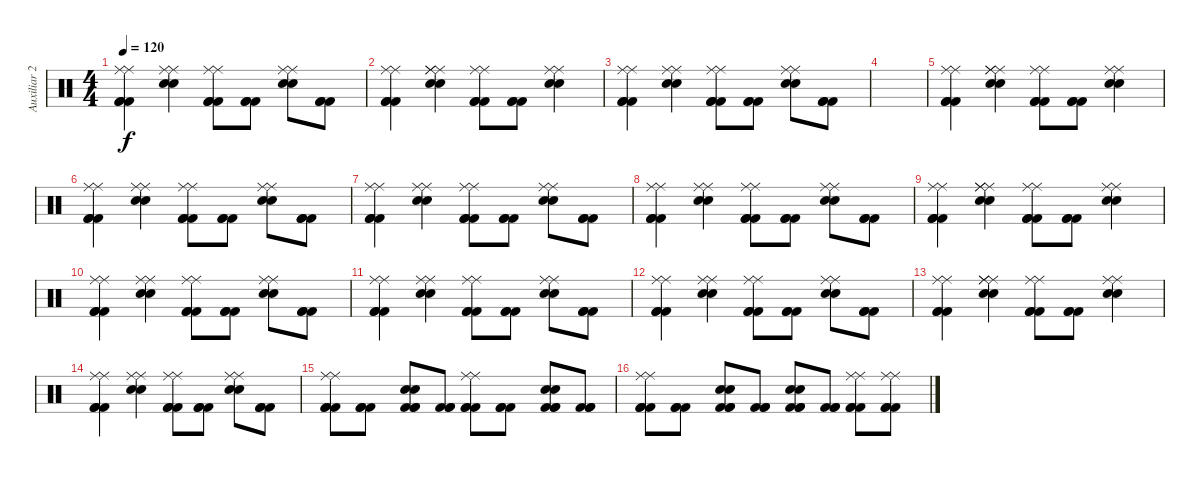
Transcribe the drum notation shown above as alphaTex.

\track ("Auxiliar 2" "Auxiliar 2") {instrument percussion}
\staff {score}
\articulation defaults
\ts (4 4)
\tempo 120
\clef neutral
\ks c
("Kick (hit) 2" "Kick (hit) 2" "Kick (hit) 2" "Ride (middle)" "Ride (middle)").4{dy f} ("Snare (hit) 2" "Snare (hit) 2" "Ride (middle)" "Ride (middle)").4 ("Kick (hit) 2" "Kick (hit) 2" "Kick (hit) 2" "Ride (middle)" "Ride (middle)").8 ("Kick (hit) 2" "Kick (hit) 2" "Kick (hit) 2").8 ("Snare (hit) 2" "Snare (hit) 2" "Ride (middle)" "Ride (middle)").8 ("Kick (hit) 2" "Kick (hit) 2" "Kick (hit) 2").8 |
("Kick (hit) 2" "Kick (hit) 2" "Kick (hit) 2" "Ride (middle)" "Ride (middle)").4 ("Snare (hit) 2" "Snare (hit) 2" "Ride (middle)" "Ride (middle)" "Ride (middle)").4 ("Kick (hit) 2" "Kick (hit) 2" "Kick (hit) 2" "Ride (middle)" "Ride (middle)").8 ("Kick (hit) 2" "Kick (hit) 2" "Kick (hit) 2").8 ("Snare (hit) 2" "Snare (hit) 2" "Ride (middle)" "Ride (middle)").4 |
("Kick (hit) 2" "Kick (hit) 2" "Kick (hit) 2" "Ride (middle)" "Ride (middle)").4 ("Snare (hit) 2" "Snare (hit) 2" "Ride (middle)" "Ride (middle)").4 ("Kick (hit) 2" "Kick (hit) 2" "Kick (hit) 2" "Ride (middle)" "Ride (middle)").8 ("Kick (hit) 2" "Kick (hit) 2" "Kick (hit) 2").8 ("Snare (hit) 2" "Snare (hit) 2" "Ride (middle)" "Ride (middle)").8 ("Kick (hit) 2" "Kick (hit) 2" "Kick (hit) 2").8 |
|
("Kick (hit) 2" "Kick (hit) 2" "Kick (hit) 2" "Ride (middle)" "Ride (middle)").4 ("Snare (hit) 2" "Snare (hit) 2" "Ride (middle)" "Ride (middle)" "Ride (middle)").4 ("Kick (hit) 2" "Kick (hit) 2" "Kick (hit) 2" "Ride (middle)" "Ride (middle)").8 ("Kick (hit) 2" "Kick (hit) 2" "Kick (hit) 2").8 ("Snare (hit) 2" "Snare (hit) 2" "Ride (middle)" "Ride (middle)").4 |
("Kick (hit) 2" "Kick (hit) 2" "Kick (hit) 2" "Ride (middle)" "Ride (middle)").4 ("Snare (hit) 2" "Snare (hit) 2" "Ride (middle)" "Ride (middle)").4 ("Kick (hit) 2" "Kick (hit) 2" "Kick (hit) 2" "Ride (middle)" "Ride (middle)").8 ("Kick (hit) 2" "Kick (hit) 2" "Kick (hit) 2").8 ("Snare (hit) 2" "Snare (hit) 2" "Ride (middle)" "Ride (middle)").8 ("Kick (hit) 2" "Kick (hit) 2" "Kick (hit) 2").8 |
("Kick (hit) 2" "Kick (hit) 2" "Kick (hit) 2" "Ride (middle)" "Ride (middle)").4 ("Snare (hit) 2" "Snare (hit) 2" "Ride (middle)" "Ride (middle)").4 ("Kick (hit) 2" "Kick (hit) 2" "Kick (hit) 2" "Ride (middle)" "Ride (middle)").8 ("Kick (hit) 2" "Kick (hit) 2" "Kick (hit) 2").8 ("Snare (hit) 2" "Snare (hit) 2" "Ride (middle)" "Ride (middle)").8 ("Kick (hit) 2" "Kick (hit) 2" "Kick (hit) 2").8 |
("Kick (hit) 2" "Kick (hit) 2" "Kick (hit) 2" "Ride (middle)" "Ride (middle)").4 ("Snare (hit) 2" "Snare (hit) 2" "Ride (middle)" "Ride (middle)").4 ("Kick (hit) 2" "Kick (hit) 2" "Kick (hit) 2" "Ride (middle)" "Ride (middle)").8 ("Kick (hit) 2" "Kick (hit) 2" "Kick (hit) 2").8 ("Snare (hit) 2" "Snare (hit) 2" "Ride (middle)" "Ride (middle)").8 ("Kick (hit) 2" "Kick (hit) 2" "Kick (hit) 2").8 |
("Kick (hit) 2" "Kick (hit) 2" "Kick (hit) 2" "Ride (middle)" "Ride (middle)").4 ("Snare (hit) 2" "Snare (hit) 2" "Ride (middle)" "Ride (middle)" "Ride (middle)").4 ("Kick (hit) 2" "Kick (hit) 2" "Kick (hit) 2" "Ride (middle)" "Ride (middle)").8 ("Kick (hit) 2" "Kick (hit) 2" "Kick (hit) 2").8 ("Snare (hit) 2" "Snare (hit) 2" "Ride (middle)" "Ride (middle)").4 |
("Kick (hit) 2" "Kick (hit) 2" "Kick (hit) 2" "Ride (middle)" "Ride (middle)").4 ("Snare (hit) 2" "Snare (hit) 2" "Ride (middle)" "Ride (middle)").4 ("Kick (hit) 2" "Kick (hit) 2" "Kick (hit) 2" "Ride (middle)" "Ride (middle)").8 ("Kick (hit) 2" "Kick (hit) 2" "Kick (hit) 2").8 ("Snare (hit) 2" "Snare (hit) 2" "Ride (middle)" "Ride (middle)").8 ("Kick (hit) 2" "Kick (hit) 2" "Kick (hit) 2").8 |
("Kick (hit) 2" "Kick (hit) 2" "Kick (hit) 2" "Ride (middle)" "Ride (middle)").4 ("Snare (hit) 2" "Snare (hit) 2" "Ride (middle)" "Ride (middle)").4 ("Kick (hit) 2" "Kick (hit) 2" "Kick (hit) 2" "Ride (middle)" "Ride (middle)").8 ("Kick (hit) 2" "Kick (hit) 2" "Kick (hit) 2").8 ("Snare (hit) 2" "Snare (hit) 2" "Ride (middle)" "Ride (middle)").8 ("Kick (hit) 2" "Kick (hit) 2" "Kick (hit) 2").8 |
("Kick (hit) 2" "Kick (hit) 2" "Kick (hit) 2" "Ride (middle)" "Ride (middle)").4 ("Snare (hit) 2" "Snare (hit) 2" "Ride (middle)" "Ride (middle)").4 ("Kick (hit) 2" "Kick (hit) 2" "Kick (hit) 2" "Ride (middle)" "Ride (middle)").8 ("Kick (hit) 2" "Kick (hit) 2" "Kick (hit) 2").8 ("Snare (hit) 2" "Snare (hit) 2" "Ride (middle)" "Ride (middle)").8 ("Kick (hit) 2" "Kick (hit) 2" "Kick (hit) 2").8 |
("Kick (hit) 2" "Kick (hit) 2" "Kick (hit) 2" "Ride (middle)" "Ride (middle)").4 ("Snare (hit) 2" "Snare (hit) 2" "Ride (middle)" "Ride (middle)" "Ride (middle)").4 ("Kick (hit) 2" "Kick (hit) 2" "Kick (hit) 2" "Ride (middle)" "Ride (middle)").8 ("Kick (hit) 2" "Kick (hit) 2" "Kick (hit) 2").8 ("Snare (hit) 2" "Snare (hit) 2" "Ride (middle)" "Ride (middle)").4 |
("Kick (hit) 2" "Kick (hit) 2" "Kick (hit) 2" "Ride (middle)" "Ride (middle)").4 ("Snare (hit) 2" "Snare (hit) 2" "Ride (middle)" "Ride (middle)").4 ("Kick (hit) 2" "Kick (hit) 2" "Kick (hit) 2" "Ride (middle)" "Ride (middle)").8 ("Kick (hit) 2" "Kick (hit) 2" "Kick (hit) 2").8 ("Snare (hit) 2" "Snare (hit) 2" "Ride (middle)" "Ride (middle)").8 ("Kick (hit) 2" "Kick (hit) 2" "Kick (hit) 2").8 |
("Kick (hit) 2" "Kick (hit) 2" "Kick (hit) 2" "Ride (middle)" "Ride (middle)").8 ("Kick (hit) 2" "Kick (hit) 2" "Kick (hit) 2").8 ("Kick (hit) 2" "Kick (hit) 2" "Kick (hit) 2" "Snare (hit) 2" "Snare (hit) 2").8 ("Kick (hit) 2" "Kick (hit) 2" "Kick (hit) 2").8 ("Kick (hit) 2" "Kick (hit) 2" "Kick (hit) 2" "Ride (middle)" "Ride (middle)").8 ("Kick (hit) 2" "Kick (hit) 2" "Kick (hit) 2").8 ("Kick (hit) 2" "Kick (hit) 2" "Kick (hit) 2" "Snare (hit) 2" "Snare (hit) 2").8 ("Kick (hit) 2" "Kick (hit) 2" "Kick (hit) 2").8 |
("Kick (hit) 2" "Kick (hit) 2" "Kick (hit) 2" "Ride (middle)" "Ride (middle)").8 ("Kick (hit) 2" "Kick (hit) 2" "Kick (hit) 2").8 ("Kick (hit) 2" "Kick (hit) 2" "Kick (hit) 2" "Snare (hit) 2" "Snare (hit) 2").8 ("Kick (hit) 2" "Kick (hit) 2" "Kick (hit) 2").8 ("Kick (hit) 2" "Kick (hit) 2" "Kick (hit) 2" "Snare (hit) 2" "Snare (hit) 2").8 ("Kick (hit) 2" "Kick (hit) 2" "Kick (hit) 2").8 ("Kick (hit) 2" "Kick (hit) 2" "Kick (hit) 2" "Ride (middle)" "Ride (middle)").8 ("Kick (hit) 2" "Kick (hit) 2" "Kick (hit) 2" "Ride (middle)" "Ride (middle)").8
